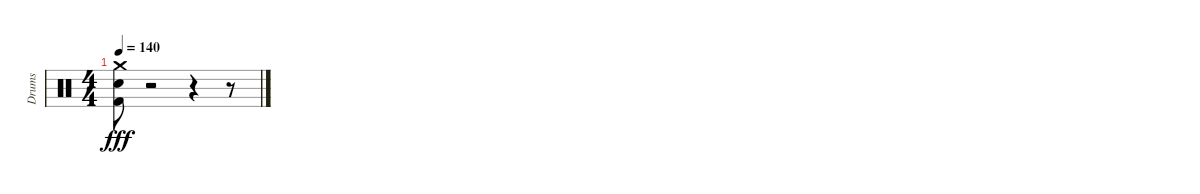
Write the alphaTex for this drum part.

\track ("Drums" "Drums") {instrument percussion}
\staff {score}
\articulation defaults
\ts (4 4)
\tempo 140
\clef neutral
\ks c
("Crash medium (hit)" "Electric Snare (hit)" "Kick (hit) 2").8{dy fff} r.2 r.4 r.8
